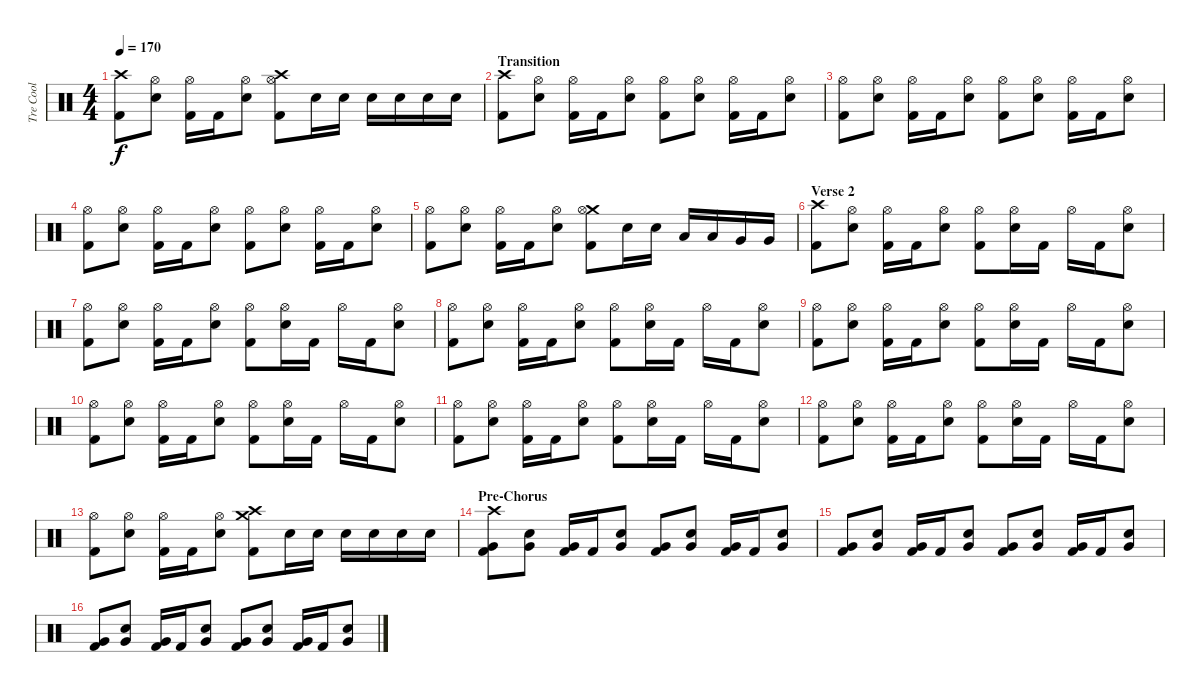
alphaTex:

\track ("Tre Cool" "Tre Cool") {instrument percussion}
\staff {score}
\articulation defaults
\ts (4 4)
\tempo 170
\clef neutral
\ks c
("Crash high (hit)" "Kick (hit) 2").8{dy f} ("Hi-Hat (open)" "Electric Snare (hit)").8 ("Hi-Hat (open)" "Kick (hit) 2").16 "Kick (hit) 2".16 ("Hi-Hat (open)" "Electric Snare (hit)").8 ("Crash high (hit)" "Hi-Hat (open)" "Kick (hit) 2").8 "Electric Snare (hit)".16 "Electric Snare (hit)".16 "Electric Snare (hit)".16 "Electric Snare (hit)".16 "Electric Snare (hit)".16 "Electric Snare (hit)".16 |
\section ("" "Transition")
("Crash high (hit)" "Kick (hit) 2").8 ("Hi-Hat (open)" "Electric Snare (hit)").8 ("Hi-Hat (open)" "Kick (hit) 2").16 "Kick (hit) 2".16 ("Hi-Hat (open)" "Electric Snare (hit)").8 ("Hi-Hat (open)" "Kick (hit) 2").8 ("Hi-Hat (open)" "Electric Snare (hit)").8 ("Hi-Hat (open)" "Kick (hit) 2").16 "Kick (hit) 2".16 ("Hi-Hat (open)" "Electric Snare (hit)").8 |
("Hi-Hat (open)" "Kick (hit) 2").8 ("Hi-Hat (open)" "Electric Snare (hit)").8 ("Hi-Hat (open)" "Kick (hit) 2").16 "Kick (hit) 2".16 ("Hi-Hat (open)" "Electric Snare (hit)").8 ("Hi-Hat (open)" "Kick (hit) 2").8 ("Hi-Hat (open)" "Electric Snare (hit)").8 ("Hi-Hat (open)" "Kick (hit) 2").16 "Kick (hit) 2".16 ("Hi-Hat (open)" "Electric Snare (hit)").8 |
("Hi-Hat (open)" "Kick (hit) 2").8 ("Hi-Hat (open)" "Electric Snare (hit)").8 ("Hi-Hat (open)" "Kick (hit) 2").16 "Kick (hit) 2".16 ("Hi-Hat (open)" "Electric Snare (hit)").8 ("Hi-Hat (open)" "Kick (hit) 2").8 ("Hi-Hat (open)" "Electric Snare (hit)").8 ("Hi-Hat (open)" "Kick (hit) 2").16 "Kick (hit) 2".16 ("Hi-Hat (open)" "Electric Snare (hit)").8 |
("Hi-Hat (open)" "Kick (hit) 2").8 ("Hi-Hat (open)" "Electric Snare (hit)").8 ("Hi-Hat (open)" "Kick (hit) 2").16 "Kick (hit) 2".16 ("Hi-Hat (open)" "Electric Snare (hit)").8 ("Crash medium (hit)" "Hi-Hat (open)" "Kick (hit) 2").8 "Electric Snare (hit)".16 "Electric Snare (hit)".16 "Low Tom (hit)".16 "Low Tom (hit)".16 "Very Low Tom (hit)".16 "Very Low Tom (hit)".16 |
\section ("" "Verse 2")
("Crash high (hit)" "Kick (hit) 2").8 ("Hi-Hat (open)" "Electric Snare (hit)").8 ("Hi-Hat (open)" "Kick (hit) 2").16 "Kick (hit) 2".16 ("Hi-Hat (open)" "Electric Snare (hit)").8 ("Hi-Hat (open)" "Kick (hit) 2").8 ("Hi-Hat (open)" "Electric Snare (hit)").16 "Kick (hit) 2".16 "Hi-Hat (open)".16 "Kick (hit) 2".16 ("Hi-Hat (open)" "Electric Snare (hit)").8 |
("Hi-Hat (open)" "Kick (hit) 2").8 ("Hi-Hat (open)" "Electric Snare (hit)").8 ("Hi-Hat (open)" "Kick (hit) 2").16 "Kick (hit) 2".16 ("Hi-Hat (open)" "Electric Snare (hit)").8 ("Hi-Hat (open)" "Kick (hit) 2").8 ("Hi-Hat (open)" "Electric Snare (hit)").16 "Kick (hit) 2".16 "Hi-Hat (open)".16 "Kick (hit) 2".16 ("Hi-Hat (open)" "Electric Snare (hit)").8 |
("Hi-Hat (open)" "Kick (hit) 2").8 ("Hi-Hat (open)" "Electric Snare (hit)").8 ("Hi-Hat (open)" "Kick (hit) 2").16 "Kick (hit) 2".16 ("Hi-Hat (open)" "Electric Snare (hit)").8 ("Hi-Hat (open)" "Kick (hit) 2").8 ("Hi-Hat (open)" "Electric Snare (hit)").16 "Kick (hit) 2".16 "Hi-Hat (open)".16 "Kick (hit) 2".16 ("Hi-Hat (open)" "Electric Snare (hit)").8 |
("Hi-Hat (open)" "Kick (hit) 2").8 ("Hi-Hat (open)" "Electric Snare (hit)").8 ("Hi-Hat (open)" "Kick (hit) 2").16 "Kick (hit) 2".16 ("Hi-Hat (open)" "Electric Snare (hit)").8 ("Hi-Hat (open)" "Kick (hit) 2").8 ("Hi-Hat (open)" "Electric Snare (hit)").16 "Kick (hit) 2".16 "Hi-Hat (open)".16 "Kick (hit) 2".16 ("Hi-Hat (open)" "Electric Snare (hit)").8 |
("Hi-Hat (open)" "Kick (hit) 2").8 ("Hi-Hat (open)" "Electric Snare (hit)").8 ("Hi-Hat (open)" "Kick (hit) 2").16 "Kick (hit) 2".16 ("Hi-Hat (open)" "Electric Snare (hit)").8 ("Hi-Hat (open)" "Kick (hit) 2").8 ("Hi-Hat (open)" "Electric Snare (hit)").16 "Kick (hit) 2".16 "Hi-Hat (open)".16 "Kick (hit) 2".16 ("Hi-Hat (open)" "Electric Snare (hit)").8 |
("Hi-Hat (open)" "Kick (hit) 2").8 ("Hi-Hat (open)" "Electric Snare (hit)").8 ("Hi-Hat (open)" "Kick (hit) 2").16 "Kick (hit) 2".16 ("Hi-Hat (open)" "Electric Snare (hit)").8 ("Hi-Hat (open)" "Kick (hit) 2").8 ("Hi-Hat (open)" "Electric Snare (hit)").16 "Kick (hit) 2".16 "Hi-Hat (open)".16 "Kick (hit) 2".16 ("Hi-Hat (open)" "Electric Snare (hit)").8 |
("Hi-Hat (open)" "Kick (hit) 2").8 ("Hi-Hat (open)" "Electric Snare (hit)").8 ("Hi-Hat (open)" "Kick (hit) 2").16 "Kick (hit) 2".16 ("Hi-Hat (open)" "Electric Snare (hit)").8 ("Hi-Hat (open)" "Kick (hit) 2").8 ("Hi-Hat (open)" "Electric Snare (hit)").16 "Kick (hit) 2".16 "Hi-Hat (open)".16 "Kick (hit) 2".16 ("Hi-Hat (open)" "Electric Snare (hit)").8 |
("Hi-Hat (open)" "Kick (hit) 2").8 ("Hi-Hat (open)" "Electric Snare (hit)").8 ("Hi-Hat (open)" "Kick (hit) 2").16 "Kick (hit) 2".16 ("Hi-Hat (open)" "Electric Snare (hit)").8 ("Crash high (hit)" "Crash medium (hit)" "Kick (hit) 2").8 "Electric Snare (hit)".16 "Electric Snare (hit)".16 "Electric Snare (hit)".16 "Electric Snare (hit)".16 "Electric Snare (hit)".16 "Electric Snare (hit)".16 |
\section ("" "Pre-Chorus")
("Crash high (hit)" "Very Low Tom (hit)" "Kick (hit) 2").8 ("Electric Snare (hit)" "Very Low Tom (hit)").8 ("Very Low Tom (hit)" "Kick (hit) 2").16 "Kick (hit) 2".16 ("Electric Snare (hit)" "Very Low Tom (hit)").8 ("Very Low Tom (hit)" "Kick (hit) 2").8 ("Electric Snare (hit)" "Very Low Tom (hit)").8 ("Very Low Tom (hit)" "Kick (hit) 2").16 "Kick (hit) 2".16 ("Electric Snare (hit)" "Very Low Tom (hit)").8 |
("Very Low Tom (hit)" "Kick (hit) 2").8 ("Electric Snare (hit)" "Very Low Tom (hit)").8 ("Very Low Tom (hit)" "Kick (hit) 2").16 "Kick (hit) 2".16 ("Electric Snare (hit)" "Very Low Tom (hit)").8 ("Very Low Tom (hit)" "Kick (hit) 2").8 ("Electric Snare (hit)" "Very Low Tom (hit)").8 ("Very Low Tom (hit)" "Kick (hit) 2").16 "Kick (hit) 2".16 ("Electric Snare (hit)" "Very Low Tom (hit)").8 |
("Very Low Tom (hit)" "Kick (hit) 2").8 ("Electric Snare (hit)" "Very Low Tom (hit)").8 ("Very Low Tom (hit)" "Kick (hit) 2").16 "Kick (hit) 2".16 ("Electric Snare (hit)" "Very Low Tom (hit)").8 ("Very Low Tom (hit)" "Kick (hit) 2").8 ("Electric Snare (hit)" "Very Low Tom (hit)").8 ("Very Low Tom (hit)" "Kick (hit) 2").16 "Kick (hit) 2".16 ("Electric Snare (hit)" "Very Low Tom (hit)").8
